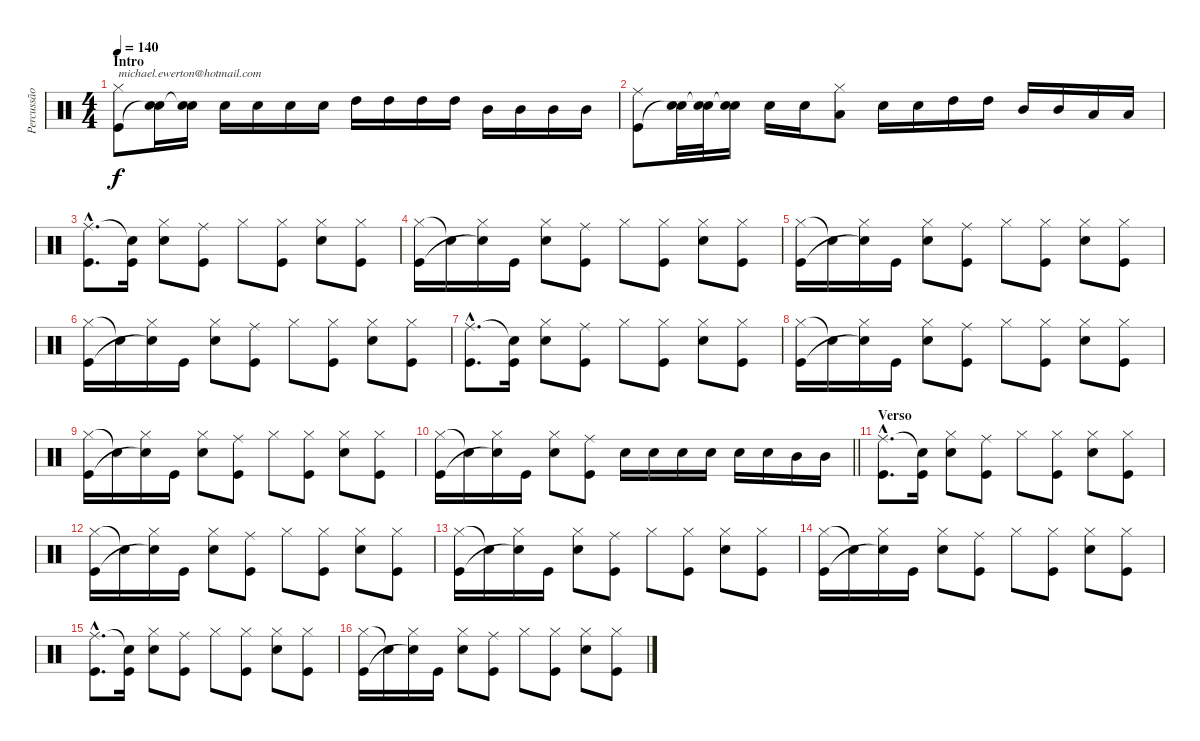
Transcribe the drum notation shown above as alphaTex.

\track ("Percussão" "Percussão") {instrument percussion}
\staff {score}
\articulation defaults
\ts (4 4)
\section ("" "Intro")
\tempo 140
\clef neutral
\ks c
("Hi-Hat (closed)" "Kick (hit)").8{txt "michael.ewerton@hotmail.com" dy f} ("Snare (hit) 2" "Snare (hit)"{t}).16 ("Snare (hit) 2" "Snare (hit)"{t}).16 "Snare (hit) 2".16 "Snare (hit) 2".16 "Snare (hit) 2".16 "Snare (hit) 2".16 "High Tom (hit)".16 "High Tom (hit)".16 "High Tom (hit)".16 "High Tom (hit)".16 "Mid Tom (hit)".16 "Mid Tom (hit)".16 "Mid Tom (hit)".16 "Mid Tom (hit)".16 |
("Ride (middle)" "Kick (hit)").8 ("Snare (hit) 2" "Snare (hit)"{t}).32 ("Snare (hit) 2" "Snare (hit)"{t}).32 ("Snare (hit) 2" "Snare (hit)"{t}).16 "Snare (hit) 2".16 "Snare (hit) 2".16 ("Hi-Hat (closed)" "Low Tom (hit)").8 "Snare (hit) 2".16 "Snare (hit) 2".16 "High Tom (hit)".16 "High Tom (hit)".16 "Mid Tom (hit)".16 "Mid Tom (hit)".16 "Low Tom (hit)".16 "Low Tom (hit)".16 |
("Ride (middle)"{hac} "Kick (hit)"{hac}).8{d} ("Snare (hit)"{t} "Kick (hit)").16 ("Hi-Hat (closed)" "Snare (hit) 2").8 ("Ride (middle)" "Kick (hit)").8 "Hi-Hat (closed)".8 ("Hi-Hat (closed)" "Kick (hit)").8 ("Hi-Hat (closed)" "Snare (hit) 2").8 ("Hi-Hat (closed)" "Kick (hit)").8 |
("Hi-Hat (closed)" "Kick (hit)").16 "Snare (hit)"{t}.16 ("Hi-Hat (closed)" "Snare (hit)"{t}).16 "Kick (hit)".16 ("Hi-Hat (closed)" "Snare (hit) 2").8 ("Ride (middle)" "Kick (hit)").8 "Hi-Hat (closed)".8 ("Hi-Hat (closed)" "Kick (hit)").8 ("Hi-Hat (closed)" "Snare (hit) 2").8 ("Hi-Hat (closed)" "Kick (hit)").8 |
("Hi-Hat (closed)" "Kick (hit)").16 "Snare (hit)"{t}.16 ("Hi-Hat (closed)" "Snare (hit)"{t}).16 "Kick (hit)".16 ("Hi-Hat (closed)" "Snare (hit) 2").8 ("Ride (middle)" "Kick (hit)").8 "Hi-Hat (closed)".8 ("Hi-Hat (closed)" "Kick (hit)").8 ("Hi-Hat (closed)" "Snare (hit) 2").8 ("Hi-Hat (closed)" "Kick (hit)").8 |
("Hi-Hat (closed)" "Kick (hit)").16 "Snare (hit)"{t}.16 ("Hi-Hat (closed)" "Snare (hit)"{t}).16 "Kick (hit)".16 ("Hi-Hat (closed)" "Snare (hit) 2").8 ("Ride (middle)" "Kick (hit)").8 "Hi-Hat (closed)".8 ("Hi-Hat (closed)" "Kick (hit)").8 ("Hi-Hat (closed)" "Snare (hit) 2").8 ("Hi-Hat (closed)" "Kick (hit)").8 |
("Ride (middle)"{hac} "Kick (hit)"{hac}).8{d} ("Snare (hit)"{t} "Kick (hit)").16 ("Hi-Hat (closed)" "Snare (hit) 2").8 ("Ride (middle)" "Kick (hit)").8 "Hi-Hat (closed)".8 ("Hi-Hat (closed)" "Kick (hit)").8 ("Hi-Hat (closed)" "Snare (hit) 2").8 ("Hi-Hat (closed)" "Kick (hit)").8 |
("Hi-Hat (closed)" "Kick (hit)").16 "Snare (hit)"{t}.16 ("Hi-Hat (closed)" "Snare (hit)"{t}).16 "Kick (hit)".16 ("Hi-Hat (closed)" "Snare (hit) 2").8 ("Ride (middle)" "Kick (hit)").8 "Hi-Hat (closed)".8 ("Hi-Hat (closed)" "Kick (hit)").8 ("Hi-Hat (closed)" "Snare (hit) 2").8 ("Hi-Hat (closed)" "Kick (hit)").8 |
("Hi-Hat (closed)" "Kick (hit)").16 "Snare (hit)"{t}.16 ("Hi-Hat (closed)" "Snare (hit)"{t}).16 "Kick (hit)".16 ("Hi-Hat (closed)" "Snare (hit) 2").8 ("Ride (middle)" "Kick (hit)").8 "Hi-Hat (closed)".8 ("Hi-Hat (closed)" "Kick (hit)").8 ("Hi-Hat (closed)" "Snare (hit) 2").8 ("Hi-Hat (closed)" "Kick (hit)").8 |
\barLineRight lightlight
("Hi-Hat (closed)" "Kick (hit)").16 "Snare (hit)"{t}.16 ("Hi-Hat (closed)" "Snare (hit)"{t}).16 "Kick (hit)".16 ("Hi-Hat (closed)" "Snare (hit) 2").8 ("Ride (middle)" "Kick (hit)").8 "Snare (hit) 2".16 "Snare (hit) 2".16 "Snare (hit) 2".16 "Snare (hit) 2".16 "Snare (hit) 2".16 "Snare (hit) 2".16 "Mid Tom (hit)".16 "Mid Tom (hit)".16 |
\section ("" "Verso")
("Ride (middle)"{hac} "Kick (hit)"{hac}).8{d} ("Snare (hit)"{t} "Kick (hit)").16 ("Hi-Hat (closed)" "Snare (hit) 2").8 ("Ride (middle)" "Kick (hit)").8 "Hi-Hat (closed)".8 ("Hi-Hat (closed)" "Kick (hit)").8 ("Hi-Hat (closed)" "Snare (hit) 2").8 ("Hi-Hat (closed)" "Kick (hit)").8 |
("Hi-Hat (closed)" "Kick (hit)").16 "Snare (hit)"{t}.16 ("Hi-Hat (closed)" "Snare (hit)"{t}).16 "Kick (hit)".16 ("Hi-Hat (closed)" "Snare (hit) 2").8 ("Ride (middle)" "Kick (hit)").8 "Hi-Hat (closed)".8 ("Hi-Hat (closed)" "Kick (hit)").8 ("Hi-Hat (closed)" "Snare (hit) 2").8 ("Hi-Hat (closed)" "Kick (hit)").8 |
("Hi-Hat (closed)" "Kick (hit)").16 "Snare (hit)"{t}.16 ("Hi-Hat (closed)" "Snare (hit)"{t}).16 "Kick (hit)".16 ("Hi-Hat (closed)" "Snare (hit) 2").8 ("Ride (middle)" "Kick (hit)").8 "Hi-Hat (closed)".8 ("Hi-Hat (closed)" "Kick (hit)").8 ("Hi-Hat (closed)" "Snare (hit) 2").8 ("Hi-Hat (closed)" "Kick (hit)").8 |
("Hi-Hat (closed)" "Kick (hit)").16 "Snare (hit)"{t}.16 ("Hi-Hat (closed)" "Snare (hit)"{t}).16 "Kick (hit)".16 ("Hi-Hat (closed)" "Snare (hit) 2").8 ("Ride (middle)" "Kick (hit)").8 "Hi-Hat (closed)".8 ("Hi-Hat (closed)" "Kick (hit)").8 ("Hi-Hat (closed)" "Snare (hit) 2").8 ("Hi-Hat (closed)" "Kick (hit)").8 |
("Ride (middle)"{hac} "Kick (hit)"{hac}).8{d} ("Snare (hit)"{t} "Kick (hit)").16 ("Hi-Hat (closed)" "Snare (hit) 2").8 ("Ride (middle)" "Kick (hit)").8 "Hi-Hat (closed)".8 ("Hi-Hat (closed)" "Kick (hit)").8 ("Hi-Hat (closed)" "Snare (hit) 2").8 ("Hi-Hat (closed)" "Kick (hit)").8 |
("Hi-Hat (closed)" "Kick (hit)").16 "Snare (hit)"{t}.16 ("Hi-Hat (closed)" "Snare (hit)"{t}).16 "Kick (hit)".16 ("Hi-Hat (closed)" "Snare (hit) 2").8 ("Ride (middle)" "Kick (hit)").8 "Hi-Hat (closed)".8 ("Hi-Hat (closed)" "Kick (hit)").8 ("Hi-Hat (closed)" "Snare (hit) 2").8 ("Hi-Hat (closed)" "Kick (hit)").8
